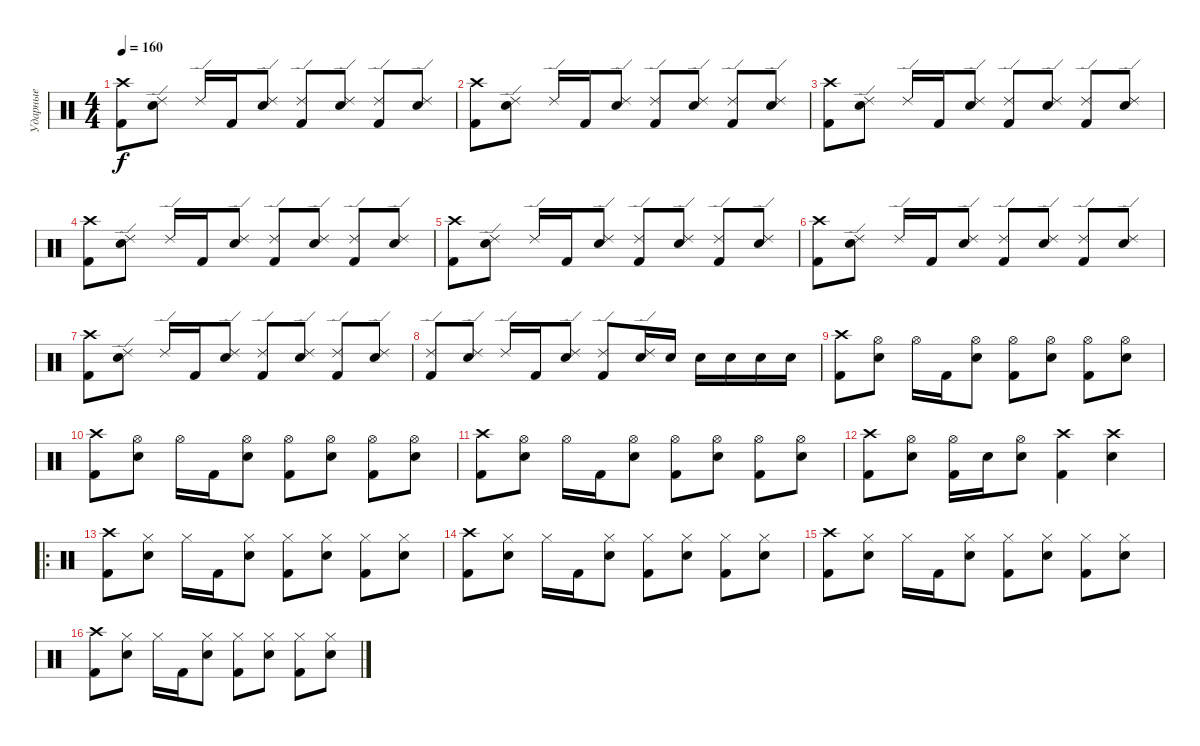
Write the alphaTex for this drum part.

\track ("Ударные" "Ударные") {instrument percussion}
\staff {score}
\articulation defaults
\ts (4 4)
\tempo 160
\clef neutral
\ks c
("Kick (hit) 2" "Crash high (hit)").8{dy f} ("Electric Snare (hit)" "Ride (edge) 2").8 "Ride (edge) 2".16 "Kick (hit) 2".16 ("Electric Snare (hit)" "Ride (edge) 2").8 ("Kick (hit) 2" "Ride (edge) 2").8 ("Electric Snare (hit)" "Ride (edge) 2").8 ("Kick (hit) 2" "Ride (edge) 2").8 ("Electric Snare (hit)" "Ride (edge) 2").8 |
("Kick (hit) 2" "Crash high (hit)").8 ("Electric Snare (hit)" "Ride (edge) 2").8 "Ride (edge) 2".16 "Kick (hit) 2".16 ("Electric Snare (hit)" "Ride (edge) 2").8 ("Kick (hit) 2" "Ride (edge) 2").8 ("Electric Snare (hit)" "Ride (edge) 2").8 ("Kick (hit) 2" "Ride (edge) 2").8 ("Electric Snare (hit)" "Ride (edge) 2").8 |
("Kick (hit) 2" "Crash high (hit)").8 ("Electric Snare (hit)" "Ride (edge) 2").8 "Ride (edge) 2".16 "Kick (hit) 2".16 ("Electric Snare (hit)" "Ride (edge) 2").8 ("Kick (hit) 2" "Ride (edge) 2").8 ("Electric Snare (hit)" "Ride (edge) 2").8 ("Kick (hit) 2" "Ride (edge) 2").8 ("Electric Snare (hit)" "Ride (edge) 2").8 |
("Kick (hit) 2" "Crash high (hit)").8 ("Electric Snare (hit)" "Ride (edge) 2").8 "Ride (edge) 2".16 "Kick (hit) 2".16 ("Electric Snare (hit)" "Ride (edge) 2").8 ("Kick (hit) 2" "Ride (edge) 2").8 ("Electric Snare (hit)" "Ride (edge) 2").8 ("Kick (hit) 2" "Ride (edge) 2").8 ("Electric Snare (hit)" "Ride (edge) 2").8 |
("Kick (hit) 2" "Crash high (hit)").8 ("Electric Snare (hit)" "Ride (edge) 2").8 "Ride (edge) 2".16 "Kick (hit) 2".16 ("Electric Snare (hit)" "Ride (edge) 2").8 ("Kick (hit) 2" "Ride (edge) 2").8 ("Electric Snare (hit)" "Ride (edge) 2").8 ("Kick (hit) 2" "Ride (edge) 2").8 ("Electric Snare (hit)" "Ride (edge) 2").8 |
("Kick (hit) 2" "Crash high (hit)").8 ("Electric Snare (hit)" "Ride (edge) 2").8 "Ride (edge) 2".16 "Kick (hit) 2".16 ("Electric Snare (hit)" "Ride (edge) 2").8 ("Kick (hit) 2" "Ride (edge) 2").8 ("Electric Snare (hit)" "Ride (edge) 2").8 ("Kick (hit) 2" "Ride (edge) 2").8 ("Electric Snare (hit)" "Ride (edge) 2").8 |
("Kick (hit) 2" "Crash high (hit)").8 ("Electric Snare (hit)" "Ride (edge) 2").8 "Ride (edge) 2".16 "Kick (hit) 2".16 ("Electric Snare (hit)" "Ride (edge) 2").8 ("Kick (hit) 2" "Ride (edge) 2").8 ("Electric Snare (hit)" "Ride (edge) 2").8 ("Kick (hit) 2" "Ride (edge) 2").8 ("Electric Snare (hit)" "Ride (edge) 2").8 |
("Kick (hit) 2" "Ride (edge) 2").8 ("Electric Snare (hit)" "Ride (edge) 2").8 "Ride (edge) 2".16 "Kick (hit) 2".16 ("Electric Snare (hit)" "Ride (edge) 2").8 ("Kick (hit) 2" "Ride (edge) 2").8 ("Electric Snare (hit)" "Ride (edge) 2").16 "Electric Snare (hit)".16 "Electric Snare (hit)".16 "Electric Snare (hit)".16 "Electric Snare (hit)".16 "Electric Snare (hit)".16 |
("Kick (hit) 2" "Crash high (hit)").8 ("Electric Snare (hit)" "Hi-Hat (open)").8 "Hi-Hat (open)".16 "Kick (hit) 2".16 ("Electric Snare (hit)" "Hi-Hat (open)").8 ("Kick (hit) 2" "Hi-Hat (open)").8 ("Electric Snare (hit)" "Hi-Hat (open)").8 ("Kick (hit) 2" "Hi-Hat (open)").8 ("Electric Snare (hit)" "Hi-Hat (open)").8 |
("Kick (hit) 2" "Crash high (hit)").8 ("Electric Snare (hit)" "Hi-Hat (open)").8 "Hi-Hat (open)".16 "Kick (hit) 2".16 ("Electric Snare (hit)" "Hi-Hat (open)").8 ("Kick (hit) 2" "Hi-Hat (open)").8 ("Electric Snare (hit)" "Hi-Hat (open)").8 ("Kick (hit) 2" "Hi-Hat (open)").8 ("Electric Snare (hit)" "Hi-Hat (open)").8 |
("Kick (hit) 2" "Crash high (hit)").8 ("Electric Snare (hit)" "Hi-Hat (open)").8 "Hi-Hat (open)".16 "Kick (hit) 2".16 ("Electric Snare (hit)" "Hi-Hat (open)").8 ("Kick (hit) 2" "Hi-Hat (open)").8 ("Electric Snare (hit)" "Hi-Hat (open)").8 ("Kick (hit) 2" "Hi-Hat (open)").8 ("Electric Snare (hit)" "Hi-Hat (open)").8 |
("Kick (hit) 2" "Crash high (hit)").8 ("Electric Snare (hit)" "Hi-Hat (open)").8 ("Kick (hit) 2" "Hi-Hat (open)").16 "Electric Snare (hit)".16 ("Electric Snare (hit)" "Hi-Hat (open)").8 ("Kick (hit) 2" "Crash high (hit)").4 ("Electric Snare (hit)" "Crash high (hit)").4 |
\ro
("Kick (hit) 2" "Crash high (hit)").8 ("Electric Snare (hit)" "Hi-Hat (closed)").8 "Hi-Hat (closed)".16 "Kick (hit) 2".16 ("Electric Snare (hit)" "Hi-Hat (closed)").8 ("Kick (hit) 2" "Hi-Hat (closed)").8 ("Electric Snare (hit)" "Hi-Hat (closed)").8 ("Kick (hit) 2" "Hi-Hat (closed)").8 ("Electric Snare (hit)" "Hi-Hat (closed)").8 |
("Kick (hit) 2" "Crash high (hit)").8 ("Electric Snare (hit)" "Hi-Hat (closed)").8 "Hi-Hat (closed)".16 "Kick (hit) 2".16 ("Electric Snare (hit)" "Hi-Hat (closed)").8 ("Kick (hit) 2" "Hi-Hat (closed)").8 ("Electric Snare (hit)" "Hi-Hat (closed)").8 ("Kick (hit) 2" "Hi-Hat (closed)").8 ("Electric Snare (hit)" "Hi-Hat (closed)").8 |
("Kick (hit) 2" "Crash high (hit)").8 ("Electric Snare (hit)" "Hi-Hat (closed)").8 "Hi-Hat (closed)".16 "Kick (hit) 2".16 ("Electric Snare (hit)" "Hi-Hat (closed)").8 ("Kick (hit) 2" "Hi-Hat (closed)").8 ("Electric Snare (hit)" "Hi-Hat (closed)").8 ("Kick (hit) 2" "Hi-Hat (closed)").8 ("Electric Snare (hit)" "Hi-Hat (closed)").8 |
("Kick (hit) 2" "Crash high (hit)").8 ("Electric Snare (hit)" "Hi-Hat (closed)").8 "Hi-Hat (closed)".16 "Kick (hit) 2".16 ("Electric Snare (hit)" "Hi-Hat (closed)").8 ("Kick (hit) 2" "Hi-Hat (closed)").8 ("Electric Snare (hit)" "Hi-Hat (closed)").8 ("Kick (hit) 2" "Hi-Hat (closed)").8 ("Electric Snare (hit)" "Hi-Hat (closed)").8
